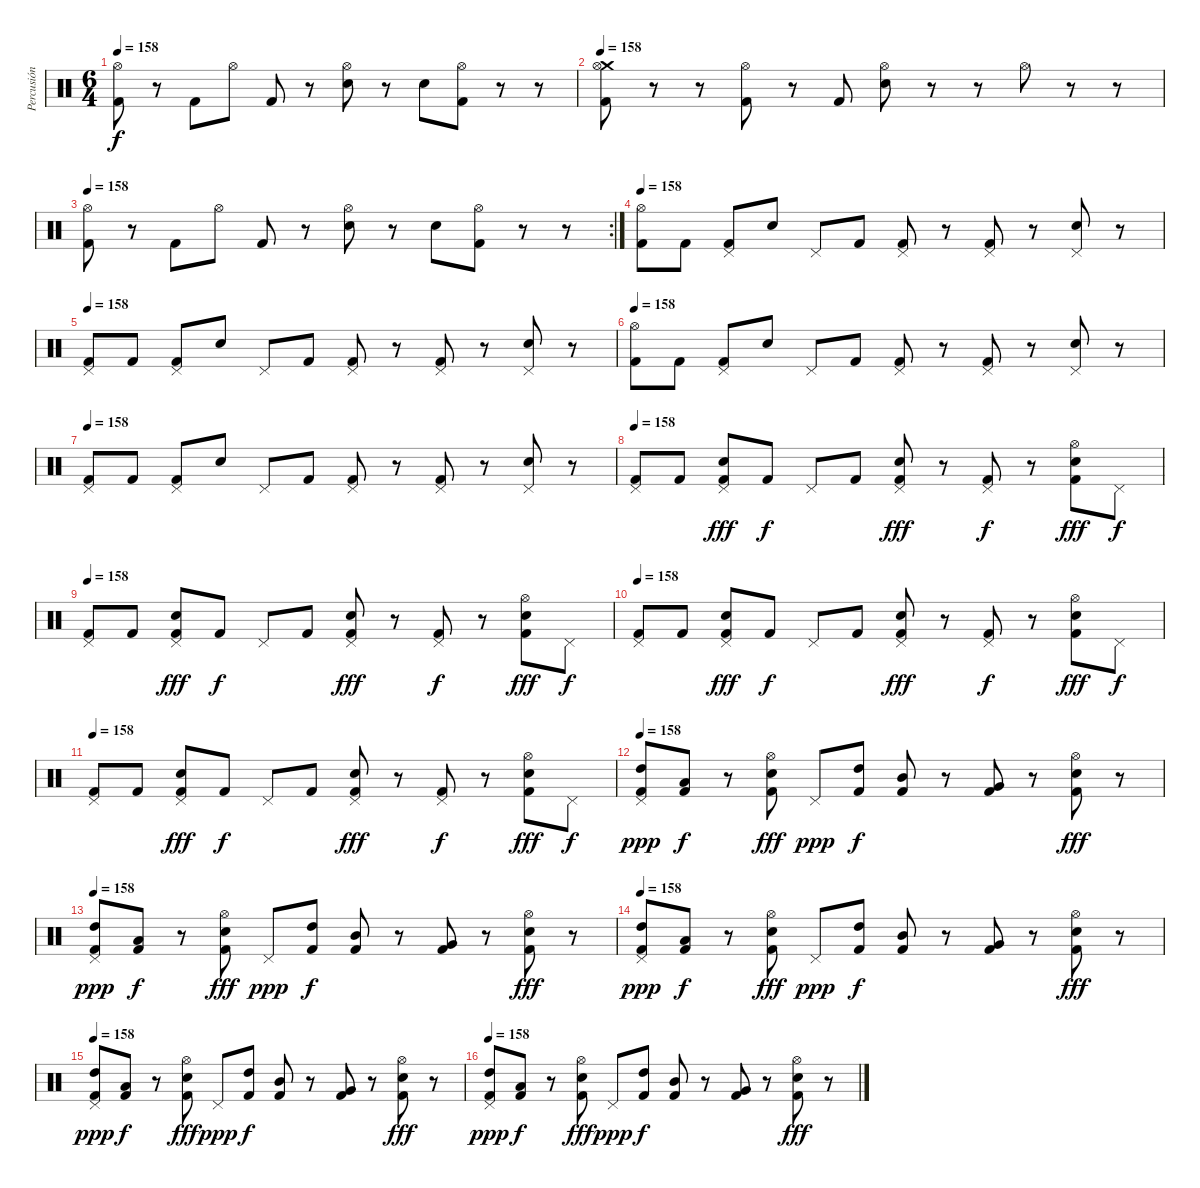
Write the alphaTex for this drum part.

\track ("Percusión" "Percusión") {instrument percussion}
\staff {score}
\articulation defaults
\ts (6 4)
\tempo 158
\clef neutral
\ks c
("Hi-Hat (open)" "Kick (hit) 2").8{dy f} r.8 "Kick (hit) 2".8 "Hi-Hat (open)".8 "Kick (hit) 2".8 r.8 ("Hi-Hat (open)" "Electric Snare (hit)").8 r.8 "Electric Snare (hit)".8 ("Hi-Hat (open)" "Kick (hit) 2").8 r.8 r.8 |
\tempo 158
("Crash medium (hit)" "Hi-Hat (open)" "Kick (hit) 2").8 r.8 r.8 ("Hi-Hat (open)" "Kick (hit) 2").8 r.8 "Kick (hit) 2".8 ("Hi-Hat (open)" "Electric Snare (hit)").8 r.8 r.8 "Hi-Hat (open)".8 r.8 r.8 |
\rc 2
\tempo 158
("Hi-Hat (open)" "Kick (hit) 2").8 r.8 "Kick (hit) 2".8 "Hi-Hat (open)".8 "Kick (hit) 2".8 r.8 ("Hi-Hat (open)" "Electric Snare (hit)").8 r.8 "Electric Snare (hit)".8 ("Hi-Hat (open)" "Kick (hit) 2").8 r.8 r.8 |
\tempo 158
("Hi-Hat (open)" "Kick (hit) 2").8 "Kick (hit) 2".8 ("Pedal Hi-Hat (hit)" "Kick (hit) 2").8 "Electric Snare (hit)".8 "Pedal Hi-Hat (hit)".8 "Kick (hit) 2".8 ("Pedal Hi-Hat (hit)" "Kick (hit) 2").8 r.8 ("Pedal Hi-Hat (hit)" "Kick (hit) 2").8 r.8 ("Pedal Hi-Hat (hit)" "Electric Snare (hit)").8 r.8 |
\tempo 158
("Pedal Hi-Hat (hit)" "Kick (hit) 2").8 "Kick (hit) 2".8 ("Pedal Hi-Hat (hit)" "Kick (hit) 2").8 "Electric Snare (hit)".8 "Pedal Hi-Hat (hit)".8 "Kick (hit) 2".8 ("Pedal Hi-Hat (hit)" "Kick (hit) 2").8 r.8 ("Pedal Hi-Hat (hit)" "Kick (hit) 2").8 r.8 ("Pedal Hi-Hat (hit)" "Electric Snare (hit)").8 r.8 |
\tempo 158
("Hi-Hat (open)" "Kick (hit) 2").8 "Kick (hit) 2".8 ("Pedal Hi-Hat (hit)" "Kick (hit) 2").8 "Electric Snare (hit)".8 "Pedal Hi-Hat (hit)".8 "Kick (hit) 2".8 ("Pedal Hi-Hat (hit)" "Kick (hit) 2").8 r.8 ("Pedal Hi-Hat (hit)" "Kick (hit) 2").8 r.8 ("Pedal Hi-Hat (hit)" "Electric Snare (hit)").8 r.8 |
\tempo 158
("Pedal Hi-Hat (hit)" "Kick (hit) 2").8 "Kick (hit) 2".8 ("Pedal Hi-Hat (hit)" "Kick (hit) 2").8 "Electric Snare (hit)".8 "Pedal Hi-Hat (hit)".8 "Kick (hit) 2".8 ("Pedal Hi-Hat (hit)" "Kick (hit) 2").8 r.8 ("Pedal Hi-Hat (hit)" "Kick (hit) 2").8 r.8 ("Pedal Hi-Hat (hit)" "Electric Snare (hit)").8 r.8 |
\tempo 158
("Pedal Hi-Hat (hit)" "Kick (hit) 2").8 "Kick (hit) 2".8 ("Pedal Hi-Hat (hit)" "Electric Snare (hit)" "Kick (hit) 2").8{dy fff} "Kick (hit) 2".8{dy f} "Pedal Hi-Hat (hit)".8 "Kick (hit) 2".8 ("Pedal Hi-Hat (hit)" "Electric Snare (hit)" "Kick (hit) 2").8{dy fff} r.8 ("Pedal Hi-Hat (hit)" "Kick (hit) 2").8{dy f} r.8 ("Hi-Hat (open)" "Electric Snare (hit)" "Kick (hit) 2").8{dy fff} "Pedal Hi-Hat (hit)".8{dy f} |
\tempo 158
("Pedal Hi-Hat (hit)" "Kick (hit) 2").8 "Kick (hit) 2".8 ("Pedal Hi-Hat (hit)" "Electric Snare (hit)" "Kick (hit) 2").8{dy fff} "Kick (hit) 2".8{dy f} "Pedal Hi-Hat (hit)".8 "Kick (hit) 2".8 ("Pedal Hi-Hat (hit)" "Electric Snare (hit)" "Kick (hit) 2").8{dy fff} r.8 ("Pedal Hi-Hat (hit)" "Kick (hit) 2").8{dy f} r.8 ("Hi-Hat (open)" "Electric Snare (hit)" "Kick (hit) 2").8{dy fff} "Pedal Hi-Hat (hit)".8{dy f} |
\tempo 158
("Pedal Hi-Hat (hit)" "Kick (hit) 2").8 "Kick (hit) 2".8 ("Pedal Hi-Hat (hit)" "Electric Snare (hit)" "Kick (hit) 2").8{dy fff} "Kick (hit) 2".8{dy f} "Pedal Hi-Hat (hit)".8 "Kick (hit) 2".8 ("Pedal Hi-Hat (hit)" "Electric Snare (hit)" "Kick (hit) 2").8{dy fff} r.8 ("Pedal Hi-Hat (hit)" "Kick (hit) 2").8{dy f} r.8 ("Hi-Hat (open)" "Electric Snare (hit)" "Kick (hit) 2").8{dy fff} "Pedal Hi-Hat (hit)".8{dy f} |
\tempo 158
("Pedal Hi-Hat (hit)" "Kick (hit) 2").8 "Kick (hit) 2".8 ("Pedal Hi-Hat (hit)" "Electric Snare (hit)" "Kick (hit) 2").8{dy fff} "Kick (hit) 2".8{dy f} "Pedal Hi-Hat (hit)".8 "Kick (hit) 2".8 ("Pedal Hi-Hat (hit)" "Electric Snare (hit)" "Kick (hit) 2").8{dy fff} r.8 ("Pedal Hi-Hat (hit)" "Kick (hit) 2").8{dy f} r.8 ("Hi-Hat (open)" "Electric Snare (hit)" "Kick (hit) 2").8{dy fff} "Pedal Hi-Hat (hit)".8{dy f} |
\tempo 158
("Pedal Hi-Hat (hit)" "High Tom (hit)" "Kick (hit) 2").8{dy ppp} ("Low Tom (hit)" "Kick (hit) 2").8{dy f} r.8 ("Hi-Hat (open)" "Electric Snare (hit)" "Kick (hit) 2").8{dy fff} "Pedal Hi-Hat (hit)".8{dy ppp} ("High Tom (hit)" "Kick (hit) 2").8{dy f} ("Mid Tom (hit)" "Kick (hit) 2").8 r.8 ("Very Low Tom (hit)" "Kick (hit) 2").8 r.8 ("Hi-Hat (open)" "Electric Snare (hit)" "Kick (hit) 2").8{dy fff} r.8 |
\tempo 158
("Pedal Hi-Hat (hit)" "High Tom (hit)" "Kick (hit) 2").8{dy ppp} ("Low Tom (hit)" "Kick (hit) 2").8{dy f} r.8 ("Hi-Hat (open)" "Electric Snare (hit)" "Kick (hit) 2").8{dy fff} "Pedal Hi-Hat (hit)".8{dy ppp} ("High Tom (hit)" "Kick (hit) 2").8{dy f} ("Mid Tom (hit)" "Kick (hit) 2").8 r.8 ("Very Low Tom (hit)" "Kick (hit) 2").8 r.8 ("Hi-Hat (open)" "Electric Snare (hit)" "Kick (hit) 2").8{dy fff} r.8 |
\tempo 158
("Pedal Hi-Hat (hit)" "High Tom (hit)" "Kick (hit) 2").8{dy ppp} ("Low Tom (hit)" "Kick (hit) 2").8{dy f} r.8 ("Hi-Hat (open)" "Electric Snare (hit)" "Kick (hit) 2").8{dy fff} "Pedal Hi-Hat (hit)".8{dy ppp} ("High Tom (hit)" "Kick (hit) 2").8{dy f} ("Mid Tom (hit)" "Kick (hit) 2").8 r.8 ("Very Low Tom (hit)" "Kick (hit) 2").8 r.8 ("Hi-Hat (open)" "Electric Snare (hit)" "Kick (hit) 2").8{dy fff} r.8 |
\tempo 158
("Pedal Hi-Hat (hit)" "High Tom (hit)" "Kick (hit) 2").8{dy ppp} ("Low Tom (hit)" "Kick (hit) 2").8{dy f} r.8 ("Hi-Hat (open)" "Electric Snare (hit)" "Kick (hit) 2").8{dy fff} "Pedal Hi-Hat (hit)".8{dy ppp} ("High Tom (hit)" "Kick (hit) 2").8{dy f} ("Mid Tom (hit)" "Kick (hit) 2").8 r.8 ("Very Low Tom (hit)" "Kick (hit) 2").8 r.8 ("Hi-Hat (open)" "Electric Snare (hit)" "Kick (hit) 2").8{dy fff} r.8 |
\tempo 158
("Pedal Hi-Hat (hit)" "High Tom (hit)" "Kick (hit) 2").8{dy ppp} ("Low Tom (hit)" "Kick (hit) 2").8{dy f} r.8 ("Hi-Hat (open)" "Electric Snare (hit)" "Kick (hit) 2").8{dy fff} "Pedal Hi-Hat (hit)".8{dy ppp} ("High Tom (hit)" "Kick (hit) 2").8{dy f} ("Mid Tom (hit)" "Kick (hit) 2").8 r.8 ("Very Low Tom (hit)" "Kick (hit) 2").8 r.8 ("Hi-Hat (open)" "Electric Snare (hit)" "Kick (hit) 2").8{dy fff} r.8
